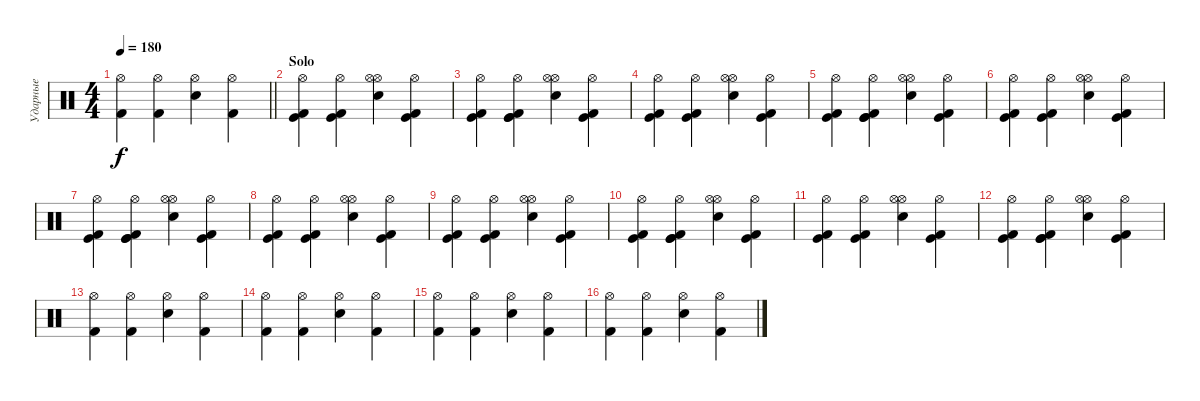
\track ("Ударные" "Ударные") {instrument percussion}
\staff {score}
\articulation defaults
\ts (4 4)
\tempo 180
\clef neutral
\barLineRight lightlight
\ks c
("Hi-Hat (open)" "Kick (hit) 2").4{dy f} ("Hi-Hat (open)" "Kick (hit) 2").4 ("Electric Snare (hit)" "Hi-Hat (open)").4 ("Hi-Hat (open)" "Kick (hit) 2").4 |
\section ("" "Solo")
("Hi-Hat (open)" "Kick (hit) 2" "Kick (hit)").4 ("Hi-Hat (open)" "Kick (hit) 2" "Kick (hit)").4 ("Electric Snare (hit)" "Hi-Hat (open)" "Hi-Hat (open)").4 ("Hi-Hat (open)" "Kick (hit) 2" "Kick (hit)").4 |
("Hi-Hat (open)" "Kick (hit) 2" "Kick (hit)").4 ("Hi-Hat (open)" "Kick (hit) 2" "Kick (hit)" "Kick (hit)").4 ("Electric Snare (hit)" "Hi-Hat (open)" "Hi-Hat (open)").4 ("Hi-Hat (open)" "Kick (hit) 2" "Kick (hit)").4 |
("Hi-Hat (open)" "Kick (hit) 2" "Kick (hit)").4 ("Hi-Hat (open)" "Kick (hit) 2" "Kick (hit)").4 ("Electric Snare (hit)" "Hi-Hat (open)" "Hi-Hat (open)").4 ("Hi-Hat (open)" "Kick (hit) 2" "Kick (hit)").4 |
("Hi-Hat (open)" "Kick (hit) 2" "Kick (hit)").4 ("Hi-Hat (open)" "Kick (hit) 2" "Kick (hit)" "Kick (hit)").4 ("Electric Snare (hit)" "Hi-Hat (open)" "Hi-Hat (open)").4 ("Hi-Hat (open)" "Kick (hit) 2" "Kick (hit)").4 |
("Hi-Hat (open)" "Kick (hit) 2" "Kick (hit)").4 ("Hi-Hat (open)" "Kick (hit) 2" "Kick (hit)").4 ("Electric Snare (hit)" "Hi-Hat (open)" "Hi-Hat (open)").4 ("Hi-Hat (open)" "Kick (hit) 2" "Kick (hit)").4 |
("Hi-Hat (open)" "Kick (hit) 2" "Kick (hit)").4 ("Hi-Hat (open)" "Kick (hit) 2" "Kick (hit)" "Kick (hit)").4 ("Electric Snare (hit)" "Hi-Hat (open)" "Hi-Hat (open)").4 ("Hi-Hat (open)" "Kick (hit) 2" "Kick (hit)").4 |
("Hi-Hat (open)" "Kick (hit) 2" "Kick (hit)").4 ("Hi-Hat (open)" "Kick (hit) 2" "Kick (hit)").4 ("Electric Snare (hit)" "Hi-Hat (open)" "Hi-Hat (open)").4 ("Hi-Hat (open)" "Kick (hit) 2" "Kick (hit)").4 |
("Hi-Hat (open)" "Kick (hit) 2" "Kick (hit)").4 ("Hi-Hat (open)" "Kick (hit) 2" "Kick (hit)").4 ("Electric Snare (hit)" "Hi-Hat (open)" "Hi-Hat (open)").4 ("Hi-Hat (open)" "Kick (hit) 2" "Kick (hit)").4 |
("Hi-Hat (open)" "Kick (hit) 2" "Kick (hit)").4 ("Hi-Hat (open)" "Kick (hit) 2" "Kick (hit)" "Kick (hit)").4 ("Electric Snare (hit)" "Hi-Hat (open)" "Hi-Hat (open)").4 ("Hi-Hat (open)" "Kick (hit) 2" "Kick (hit)").4 |
("Hi-Hat (open)" "Kick (hit) 2" "Kick (hit)").4 ("Hi-Hat (open)" "Kick (hit) 2" "Kick (hit)").4 ("Electric Snare (hit)" "Hi-Hat (open)" "Hi-Hat (open)").4 ("Hi-Hat (open)" "Kick (hit) 2" "Kick (hit)").4 |
("Hi-Hat (open)" "Kick (hit) 2" "Kick (hit)").4 ("Hi-Hat (open)" "Kick (hit) 2" "Kick (hit)" "Kick (hit)").4 ("Electric Snare (hit)" "Hi-Hat (open)" "Hi-Hat (open)").4 ("Hi-Hat (open)" "Kick (hit) 2" "Kick (hit)").4 |
("Hi-Hat (open)" "Kick (hit) 2").4 ("Hi-Hat (open)" "Kick (hit) 2").4 ("Electric Snare (hit)" "Hi-Hat (open)").4 ("Hi-Hat (open)" "Kick (hit) 2").4 |
("Hi-Hat (open)" "Kick (hit) 2").4 ("Hi-Hat (open)" "Kick (hit) 2").4 ("Electric Snare (hit)" "Hi-Hat (open)").4 ("Hi-Hat (open)" "Kick (hit) 2").4 |
("Hi-Hat (open)" "Kick (hit) 2").4 ("Hi-Hat (open)" "Kick (hit) 2").4 ("Electric Snare (hit)" "Hi-Hat (open)").4 ("Hi-Hat (open)" "Kick (hit) 2").4 |
("Hi-Hat (open)" "Kick (hit) 2").4 ("Hi-Hat (open)" "Kick (hit) 2").4 ("Electric Snare (hit)" "Hi-Hat (open)").4 ("Hi-Hat (open)" "Kick (hit) 2").4
